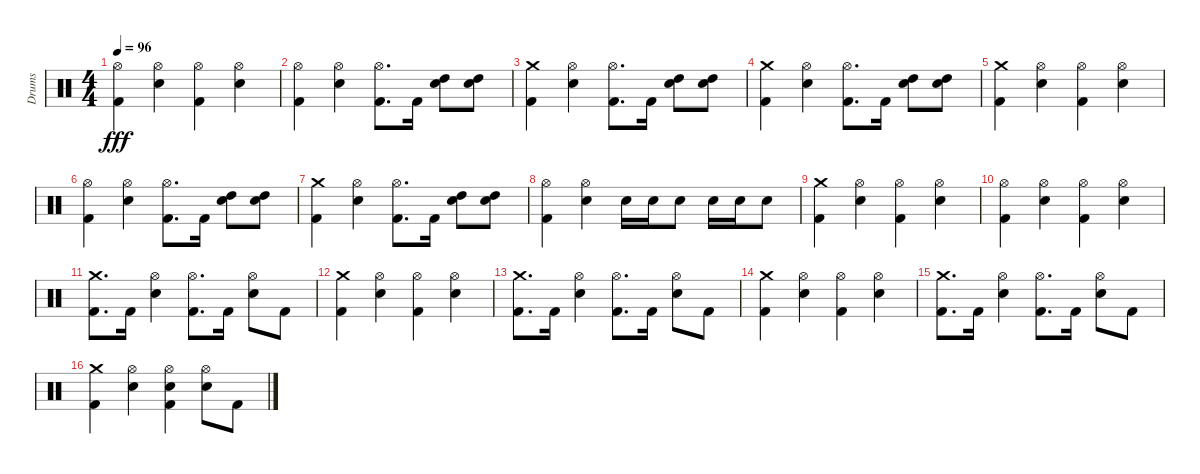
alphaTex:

\track ("Drums" "Drums") {instrument percussion}
\staff {score}
\articulation defaults
\ts (4 4)
\tempo 96
\clef neutral
\ks c
("Hi-Hat (open)" "Kick (hit) 2").4{dy fff} ("Hi-Hat (open)" "Snare (hit) 2").4 ("Hi-Hat (open)" "Kick (hit) 2").4 ("Hi-Hat (open)" "Snare (hit) 2").4 |
("Hi-Hat (open)" "Kick (hit) 2").4 ("Hi-Hat (open)" "Snare (hit) 2").4 ("Hi-Hat (open)" "Kick (hit) 2").8{d} "Kick (hit) 2".16 ("High Tom (hit)" "Snare (hit) 2").8 ("High Tom (hit)" "Snare (hit) 2").8 |
("Kick (hit) 2" "Crash medium (hit)").4 ("Hi-Hat (open)" "Snare (hit) 2").4 ("Hi-Hat (open)" "Kick (hit) 2").8{d} "Kick (hit) 2".16 ("High Tom (hit)" "Snare (hit) 2").8 ("High Tom (hit)" "Snare (hit) 2").8 |
("Kick (hit) 2" "Crash medium (hit)").4 ("Hi-Hat (open)" "Snare (hit) 2").4 ("Hi-Hat (open)" "Kick (hit) 2").8{d} "Kick (hit) 2".16 ("High Tom (hit)" "Snare (hit) 2").8 ("High Tom (hit)" "Snare (hit) 2").8 |
("Kick (hit) 2" "Crash medium (hit)").4 ("Hi-Hat (open)" "Snare (hit) 2").4 ("Hi-Hat (open)" "Kick (hit) 2").4 ("Hi-Hat (open)" "Snare (hit) 2").4 |
("Kick (hit) 2" "Hi-Hat (open)").4 ("Hi-Hat (open)" "Snare (hit) 2").4 ("Hi-Hat (open)" "Kick (hit) 2").8{d} "Kick (hit) 2".16 ("High Tom (hit)" "Snare (hit) 2").8 ("High Tom (hit)" "Snare (hit) 2").8 |
("Kick (hit) 2" "Crash medium (hit)").4 ("Hi-Hat (open)" "Snare (hit) 2").4 ("Hi-Hat (open)" "Kick (hit) 2").8{d} "Kick (hit) 2".16 ("High Tom (hit)" "Snare (hit) 2").8 ("High Tom (hit)" "Snare (hit) 2").8 |
("Hi-Hat (open)" "Kick (hit) 2").4 ("Hi-Hat (open)" "Snare (hit) 2").4 "Snare (hit) 2".16 "Snare (hit) 2".16 "Snare (hit) 2".8 "Snare (hit) 2".16 "Snare (hit) 2".16 "Snare (hit) 2".8 |
("Kick (hit) 2" "Crash medium (hit)").4 ("Hi-Hat (open)" "Snare (hit) 2").4 ("Hi-Hat (open)" "Kick (hit) 2").4 ("Hi-Hat (open)" "Snare (hit) 2").4 |
("Hi-Hat (open)" "Kick (hit) 2").4 ("Hi-Hat (open)" "Snare (hit) 2").4 ("Hi-Hat (open)" "Kick (hit) 2").4 ("Hi-Hat (open)" "Snare (hit) 2").4 |
("Kick (hit) 2" "Crash medium (hit)").8{d} "Kick (hit) 2".16 ("Snare (hit) 2" "Hi-Hat (open)").4 ("Kick (hit) 2" "Hi-Hat (open)").8{d} "Kick (hit) 2".16 ("Snare (hit) 2" "Hi-Hat (open)").8 "Kick (hit) 2".8 |
("Kick (hit) 2" "Crash medium (hit)").4 ("Hi-Hat (open)" "Snare (hit) 2").4 ("Hi-Hat (open)" "Kick (hit) 2").4 ("Hi-Hat (open)" "Snare (hit) 2").4 |
("Kick (hit) 2" "Crash medium (hit)").8{d} "Kick (hit) 2".16 ("Snare (hit) 2" "Hi-Hat (open)").4 ("Kick (hit) 2" "Hi-Hat (open)").8{d} "Kick (hit) 2".16 ("Snare (hit) 2" "Hi-Hat (open)").8 "Kick (hit) 2".8 |
("Kick (hit) 2" "Crash medium (hit)").4 ("Hi-Hat (open)" "Snare (hit) 2").4 ("Hi-Hat (open)" "Kick (hit) 2").4 ("Hi-Hat (open)" "Snare (hit) 2").4 |
("Kick (hit) 2" "Crash medium (hit)").8{d} "Kick (hit) 2".16 ("Snare (hit) 2" "Hi-Hat (open)").4 ("Kick (hit) 2" "Hi-Hat (open)").8{d} "Kick (hit) 2".16 ("Snare (hit) 2" "Hi-Hat (open)").8 "Kick (hit) 2".8 |
("Kick (hit) 2" "Crash medium (hit)").4 ("Hi-Hat (open)" "Snare (hit) 2").4 ("Hi-Hat (open)" "Snare (hit) 2" "Kick (hit) 2").4 ("Hi-Hat (open)" "Snare (hit) 2").8 "Kick (hit) 2".8
